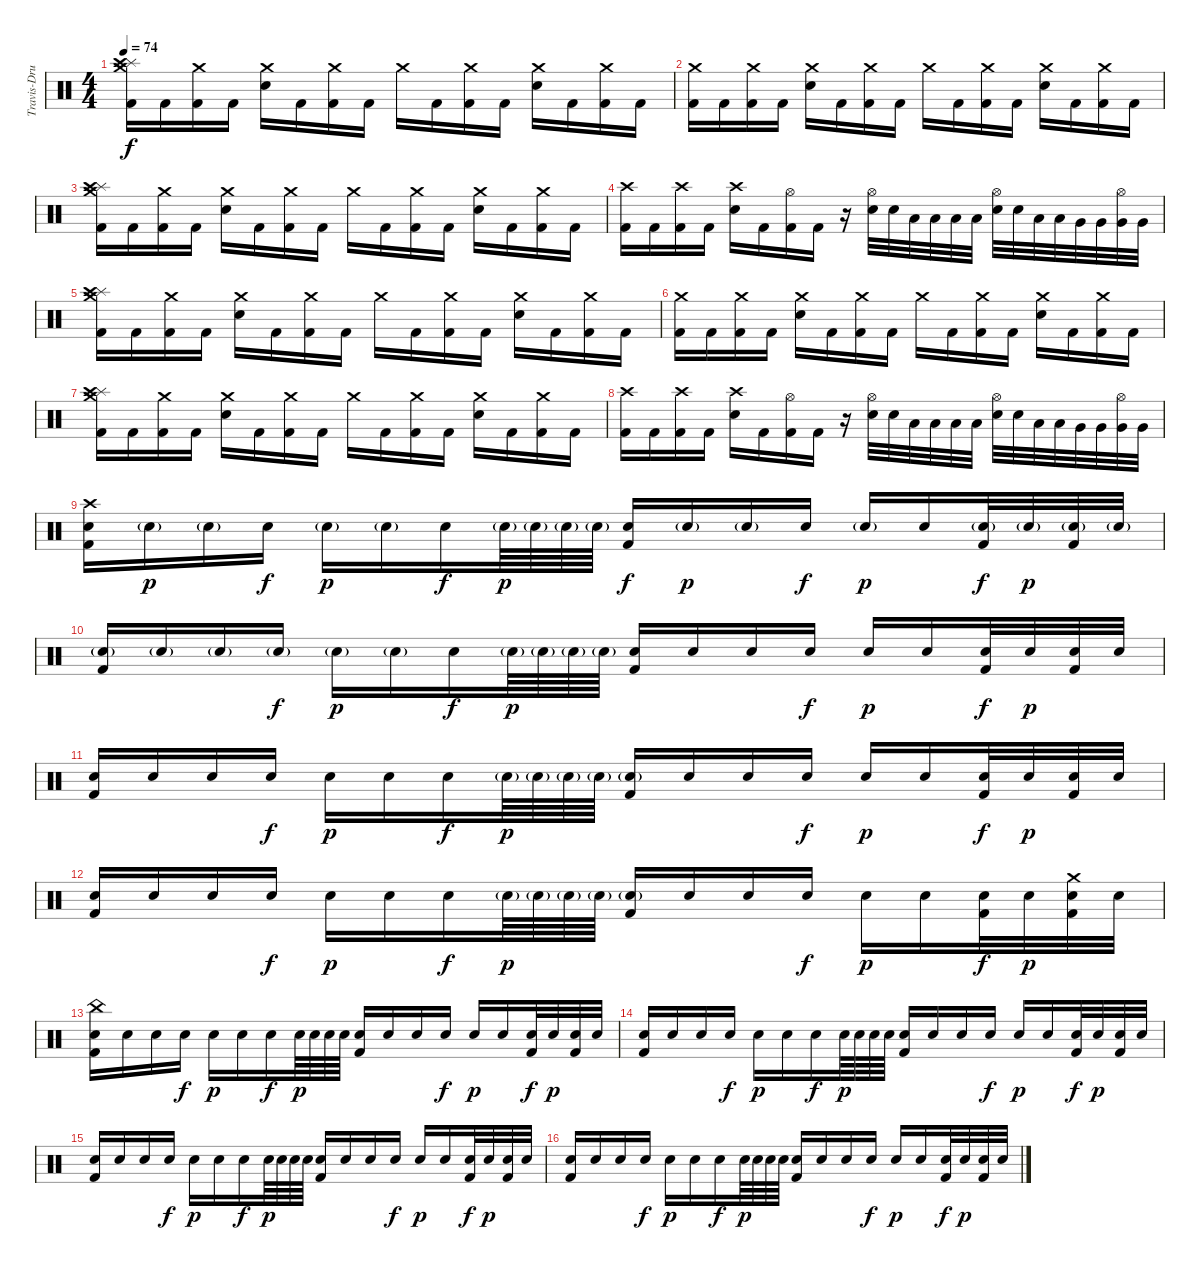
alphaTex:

\track ("Travis-Drums" "Travis-Dru") {instrument percussion}
\staff {score}
\articulation defaults
\ts (4 4)
\tempo 74
\clef neutral
\ks c
("Splash (hit)" "Crash high (hit)" "Crash medium (hit)" "Kick (hit) 2").16{dy f volume 10} "Kick (hit) 2".16 ("Crash medium (hit)" "Kick (hit) 2").16 "Kick (hit) 2".16 ("Crash medium (hit)" "Snare (hit) 2").16 "Kick (hit) 2".16 ("Crash medium (hit)" "Kick (hit) 2").16 "Kick (hit) 2".16 "Crash medium (hit)".16 "Kick (hit) 2".16 ("Crash medium (hit)" "Kick (hit) 2").16 "Kick (hit) 2".16 ("Crash medium (hit)" "Snare (hit) 2").16 "Kick (hit) 2".16 ("Crash medium (hit)" "Kick (hit) 2").16 "Kick (hit) 2".16 |
("Crash medium (hit)" "Kick (hit) 2").16 "Kick (hit) 2".16 ("Crash medium (hit)" "Kick (hit) 2").16 "Kick (hit) 2".16 ("Crash medium (hit)" "Snare (hit) 2").16 "Kick (hit) 2".16 ("Crash medium (hit)" "Kick (hit) 2").16 "Kick (hit) 2".16 "Crash medium (hit)".16 "Kick (hit) 2".16 ("Crash medium (hit)" "Kick (hit) 2").16 "Kick (hit) 2".16 ("Crash medium (hit)" "Snare (hit) 2").16 "Kick (hit) 2".16 ("Crash medium (hit)" "Kick (hit) 2").16 "Kick (hit) 2".16 |
("Splash (hit)" "Crash high (hit)" "Crash medium (hit)" "Kick (hit) 2").16 "Kick (hit) 2".16 ("Crash medium (hit)" "Kick (hit) 2").16 "Kick (hit) 2".16 ("Crash medium (hit)" "Snare (hit) 2").16 "Kick (hit) 2".16 ("Crash medium (hit)" "Kick (hit) 2").16 "Kick (hit) 2".16 "Crash medium (hit)".16 "Kick (hit) 2".16 ("Crash medium (hit)" "Kick (hit) 2").16 "Kick (hit) 2".16 ("Crash medium (hit)" "Snare (hit) 2").16 "Kick (hit) 2".16 ("Crash medium (hit)" "Kick (hit) 2").16 "Kick (hit) 2".16 |
("Crash high (hit)" "Kick (hit) 2").16 "Kick (hit) 2".16 ("Crash high (hit)" "Kick (hit) 2").16 "Kick (hit) 2".16 ("Crash high (hit)" "Snare (hit) 2").16 "Kick (hit) 2".16 ("Hi-Hat (open)" "Kick (hit) 2").16 "Kick (hit) 2".16 r.16 ("Hi-Hat (open)" "Electric Snare (hit)").32 "Electric Snare (hit)".32 "Low Tom (hit)".32 "Low Tom (hit)".32 "Low Tom (hit)".32 "Low Tom (hit)".32 ("Hi-Hat (open)" "Electric Snare (hit)").32 "Electric Snare (hit)".32 "Low Tom (hit)".32 "Low Tom (hit)".32 "Very Low Tom (hit)".32 "Very Low Tom (hit)".32 ("Hi-Hat (open)" "Very Low Tom (hit)").32 "Very Low Tom (hit)".32 |
("Splash (hit)" "Crash high (hit)" "Crash medium (hit)" "Kick (hit) 2").16 "Kick (hit) 2".16 ("Crash medium (hit)" "Kick (hit) 2").16 "Kick (hit) 2".16 ("Crash medium (hit)" "Snare (hit) 2").16 "Kick (hit) 2".16 ("Crash medium (hit)" "Kick (hit) 2").16 "Kick (hit) 2".16 "Crash medium (hit)".16 "Kick (hit) 2".16 ("Crash medium (hit)" "Kick (hit) 2").16 "Kick (hit) 2".16 ("Crash medium (hit)" "Snare (hit) 2").16 "Kick (hit) 2".16 ("Crash medium (hit)" "Kick (hit) 2").16 "Kick (hit) 2".16 |
("Crash medium (hit)" "Kick (hit) 2").16 "Kick (hit) 2".16 ("Crash medium (hit)" "Kick (hit) 2").16 "Kick (hit) 2".16 ("Crash medium (hit)" "Snare (hit) 2").16 "Kick (hit) 2".16 ("Crash medium (hit)" "Kick (hit) 2").16 "Kick (hit) 2".16 "Crash medium (hit)".16 "Kick (hit) 2".16 ("Crash medium (hit)" "Kick (hit) 2").16 "Kick (hit) 2".16 ("Crash medium (hit)" "Snare (hit) 2").16 "Kick (hit) 2".16 ("Crash medium (hit)" "Kick (hit) 2").16 "Kick (hit) 2".16 |
("Splash (hit)" "Crash high (hit)" "Crash medium (hit)" "Kick (hit) 2").16 "Kick (hit) 2".16 ("Crash medium (hit)" "Kick (hit) 2").16 "Kick (hit) 2".16 ("Crash medium (hit)" "Snare (hit) 2").16 "Kick (hit) 2".16 ("Crash medium (hit)" "Kick (hit) 2").16 "Kick (hit) 2".16 "Crash medium (hit)".16 "Kick (hit) 2".16 ("Crash medium (hit)" "Kick (hit) 2").16 "Kick (hit) 2".16 ("Crash medium (hit)" "Snare (hit) 2").16 "Kick (hit) 2".16 ("Crash medium (hit)" "Kick (hit) 2").16 "Kick (hit) 2".16 |
("Crash high (hit)" "Kick (hit) 2").16 "Kick (hit) 2".16 ("Crash high (hit)" "Kick (hit) 2").16 "Kick (hit) 2".16 ("Crash high (hit)" "Snare (hit) 2").16 "Kick (hit) 2".16 ("Hi-Hat (open)" "Kick (hit) 2").16 "Kick (hit) 2".16 r.16 ("Hi-Hat (open)" "Electric Snare (hit)").32 "Electric Snare (hit)".32 "Low Tom (hit)".32 "Low Tom (hit)".32 "Low Tom (hit)".32 "Low Tom (hit)".32 ("Hi-Hat (open)" "Electric Snare (hit)").32 "Electric Snare (hit)".32 "Low Tom (hit)".32 "Low Tom (hit)".32 "Very Low Tom (hit)".32 "Very Low Tom (hit)".32 ("Hi-Hat (open)" "Very Low Tom (hit)").32 "Very Low Tom (hit)".32 |
("Crash high (hit)" "Snare (hit) 2" "Kick (hit) 2").16 "Snare (hit) 2"{g}.16{dy p} "Snare (hit) 2"{g}.16 "Snare (hit) 2".16{dy f} "Snare (hit) 2"{g}.16{dy p} "Snare (hit) 2"{g}.16 "Snare (hit) 2".16{dy f} "Snare (hit) 2"{g}.64{dy p} "Snare (hit) 2"{g}.64 "Snare (hit) 2"{g}.64 "Snare (hit) 2"{g}.64 ("Snare (hit) 2" "Kick (hit) 2").16{dy f} "Snare (hit) 2"{g}.16{dy p} "Snare (hit) 2"{g}.16 "Snare (hit) 2".16{dy f} "Snare (hit) 2"{g}.16{dy p} "Snare (hit) 2".16 ("Snare (hit) 2"{g} "Kick (hit) 2").32{dy f} "Snare (hit) 2"{g}.32{dy p} ("Snare (hit) 2"{g} "Kick (hit) 2").32 "Snare (hit) 2"{g}.32 |
("Snare (hit) 2"{g} "Kick (hit) 2").16 "Snare (hit) 2"{g}.16 "Snare (hit) 2"{g}.16 "Snare (hit) 2"{g}.16{dy f} "Snare (hit) 2"{g}.16{dy p} "Snare (hit) 2"{g}.16 "Snare (hit) 2".16{dy f} "Snare (hit) 2"{g}.64{dy p} "Snare (hit) 2"{g}.64 "Snare (hit) 2"{g}.64 "Snare (hit) 2"{g}.64 ("Snare (hit) 2" "Kick (hit) 2").16 "Snare (hit) 2".16 "Snare (hit) 2".16 "Snare (hit) 2".16{dy f} "Snare (hit) 2".16{dy p} "Snare (hit) 2".16 ("Snare (hit) 2" "Kick (hit) 2").32{dy f} "Snare (hit) 2".32{dy p} ("Snare (hit) 2" "Kick (hit) 2").32 "Snare (hit) 2".32 |
("Snare (hit) 2" "Kick (hit) 2").16 "Snare (hit) 2".16 "Snare (hit) 2".16 "Snare (hit) 2".16{dy f} "Snare (hit) 2".16{dy p} "Snare (hit) 2".16 "Snare (hit) 2".16{dy f} "Snare (hit) 2"{g}.64{dy p} "Snare (hit) 2"{g}.64 "Snare (hit) 2"{g}.64 "Snare (hit) 2"{g}.64 ("Snare (hit) 2"{g} "Kick (hit) 2").16 "Snare (hit) 2".16 "Snare (hit) 2".16 "Snare (hit) 2".16{dy f} "Snare (hit) 2".16{dy p} "Snare (hit) 2".16 ("Snare (hit) 2" "Kick (hit) 2").32{dy f} "Snare (hit) 2".32{dy p} ("Snare (hit) 2" "Kick (hit) 2").32 "Snare (hit) 2".32 |
("Snare (hit) 2" "Kick (hit) 2").16 "Snare (hit) 2".16 "Snare (hit) 2".16 "Snare (hit) 2".16{dy f} "Snare (hit) 2".16{dy p} "Snare (hit) 2".16 "Snare (hit) 2".16{dy f} "Snare (hit) 2"{g}.64{dy p} "Snare (hit) 2"{g}.64 "Snare (hit) 2"{g}.64 "Snare (hit) 2"{g}.64 ("Snare (hit) 2"{g} "Kick (hit) 2").16 "Snare (hit) 2".16 "Snare (hit) 2".16 "Snare (hit) 2".16{dy f} "Snare (hit) 2".16{dy p} "Snare (hit) 2".16 ("Snare (hit) 2" "Kick (hit) 2").32{dy f} "Snare (hit) 2".32{dy p} ("Crash medium (hit)" "Snare (hit) 2" "Kick (hit) 2").32 "Snare (hit) 2".32 |
("China (hit)" "Snare (hit) 2" "Kick (hit) 2").16 "Snare (hit) 2".16 "Snare (hit) 2".16 "Snare (hit) 2".16{dy f} "Snare (hit) 2".16{dy p} "Snare (hit) 2".16 "Snare (hit) 2".16{dy f} "Snare (hit) 2".64{dy p} "Snare (hit) 2".64 "Snare (hit) 2".64 "Snare (hit) 2".64 ("Snare (hit) 2" "Kick (hit) 2").16 "Snare (hit) 2".16 "Snare (hit) 2".16 "Snare (hit) 2".16{dy f} "Snare (hit) 2".16{dy p} "Snare (hit) 2".16 ("Snare (hit) 2" "Kick (hit) 2").32{dy f} "Snare (hit) 2".32{dy p} ("Snare (hit) 2" "Kick (hit) 2").32 "Snare (hit) 2".32 |
("Snare (hit) 2" "Kick (hit) 2").16 "Snare (hit) 2".16 "Snare (hit) 2".16 "Snare (hit) 2".16{dy f} "Snare (hit) 2".16{dy p} "Snare (hit) 2".16 "Snare (hit) 2".16{dy f} "Snare (hit) 2".64{dy p} "Snare (hit) 2".64 "Snare (hit) 2".64 "Snare (hit) 2".64 ("Snare (hit) 2" "Kick (hit) 2").16 "Snare (hit) 2".16 "Snare (hit) 2".16 "Snare (hit) 2".16{dy f} "Snare (hit) 2".16{dy p} "Snare (hit) 2".16 ("Snare (hit) 2" "Kick (hit) 2").32{dy f} "Snare (hit) 2".32{dy p} ("Snare (hit) 2" "Kick (hit) 2").32 "Snare (hit) 2".32 |
("Snare (hit) 2" "Kick (hit) 2").16 "Snare (hit) 2".16 "Snare (hit) 2".16 "Snare (hit) 2".16{dy f} "Snare (hit) 2".16{dy p} "Snare (hit) 2".16 "Snare (hit) 2".16{dy f} "Snare (hit) 2".64{dy p} "Snare (hit) 2".64 "Snare (hit) 2".64 "Snare (hit) 2".64 ("Snare (hit) 2" "Kick (hit) 2").16 "Snare (hit) 2".16 "Snare (hit) 2".16 "Snare (hit) 2".16{dy f} "Snare (hit) 2".16{dy p} "Snare (hit) 2".16 ("Snare (hit) 2" "Kick (hit) 2").32{dy f} "Snare (hit) 2".32{dy p} ("Snare (hit) 2" "Kick (hit) 2").32 "Snare (hit) 2".32 |
("Snare (hit) 2" "Kick (hit) 2").16 "Snare (hit) 2".16 "Snare (hit) 2".16 "Snare (hit) 2".16{dy f} "Snare (hit) 2".16{dy p} "Snare (hit) 2".16 "Snare (hit) 2".16{dy f} "Snare (hit) 2".64{dy p} "Snare (hit) 2".64 "Snare (hit) 2".64 "Snare (hit) 2".64 ("Snare (hit) 2" "Kick (hit) 2").16 "Snare (hit) 2".16 "Snare (hit) 2".16 "Snare (hit) 2".16{dy f} "Snare (hit) 2".16{dy p} "Snare (hit) 2".16 ("Snare (hit) 2" "Kick (hit) 2").32{dy f} "Snare (hit) 2".32{dy p} ("Snare (hit) 2" "Kick (hit) 2").32 "Snare (hit) 2".32
